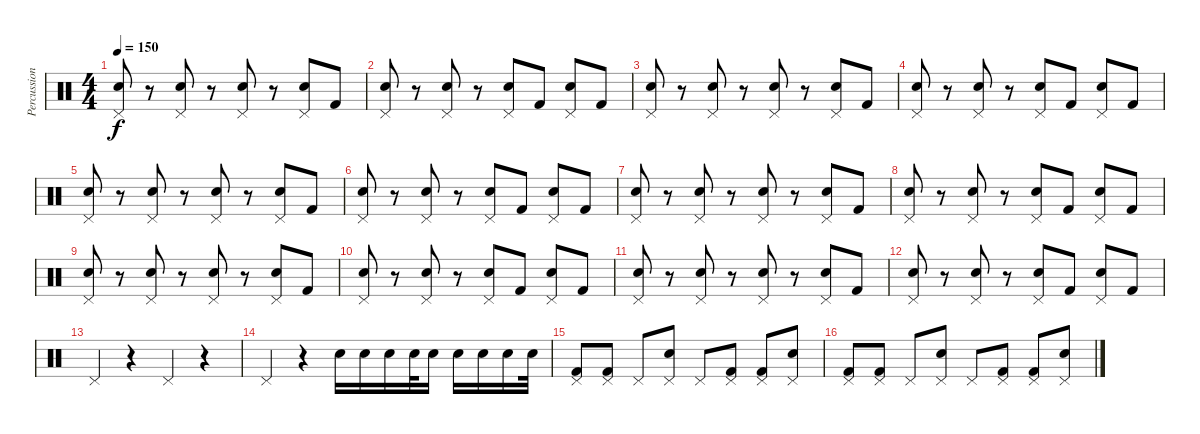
\track ("Percussion" "Percussion") {instrument percussion}
\staff {score}
\articulation defaults
\ts (4 4)
\tempo 150
\clef neutral
\ks c
("Pedal Hi-Hat (hit)" "Electric Snare (hit)").8{dy f} r.8 ("Pedal Hi-Hat (hit)" "Electric Snare (hit)").8 r.8 ("Pedal Hi-Hat (hit)" "Electric Snare (hit)").8 r.8 ("Pedal Hi-Hat (hit)" "Electric Snare (hit)").8 "Kick (hit) 2".8 |
("Pedal Hi-Hat (hit)" "Electric Snare (hit)").8 r.8 ("Pedal Hi-Hat (hit)" "Electric Snare (hit)").8 r.8 ("Pedal Hi-Hat (hit)" "Electric Snare (hit)").8 "Kick (hit) 2".8 ("Pedal Hi-Hat (hit)" "Electric Snare (hit)").8 "Kick (hit) 2".8 |
("Pedal Hi-Hat (hit)" "Electric Snare (hit)").8 r.8 ("Pedal Hi-Hat (hit)" "Electric Snare (hit)").8 r.8 ("Pedal Hi-Hat (hit)" "Electric Snare (hit)").8 r.8 ("Pedal Hi-Hat (hit)" "Electric Snare (hit)").8 "Kick (hit) 2".8 |
("Pedal Hi-Hat (hit)" "Electric Snare (hit)").8 r.8 ("Pedal Hi-Hat (hit)" "Electric Snare (hit)").8 r.8 ("Pedal Hi-Hat (hit)" "Electric Snare (hit)").8 "Kick (hit) 2".8 ("Pedal Hi-Hat (hit)" "Electric Snare (hit)").8 "Kick (hit) 2".8 |
("Pedal Hi-Hat (hit)" "Electric Snare (hit)").8 r.8 ("Pedal Hi-Hat (hit)" "Electric Snare (hit)").8 r.8 ("Pedal Hi-Hat (hit)" "Electric Snare (hit)").8 r.8 ("Pedal Hi-Hat (hit)" "Electric Snare (hit)").8 "Kick (hit) 2".8 |
("Pedal Hi-Hat (hit)" "Electric Snare (hit)").8 r.8 ("Pedal Hi-Hat (hit)" "Electric Snare (hit)").8 r.8 ("Pedal Hi-Hat (hit)" "Electric Snare (hit)").8 "Kick (hit) 2".8 ("Pedal Hi-Hat (hit)" "Electric Snare (hit)").8 "Kick (hit) 2".8 |
("Pedal Hi-Hat (hit)" "Electric Snare (hit)").8 r.8 ("Pedal Hi-Hat (hit)" "Electric Snare (hit)").8 r.8 ("Pedal Hi-Hat (hit)" "Electric Snare (hit)").8 r.8 ("Pedal Hi-Hat (hit)" "Electric Snare (hit)").8 "Kick (hit) 2".8 |
("Pedal Hi-Hat (hit)" "Electric Snare (hit)").8 r.8 ("Pedal Hi-Hat (hit)" "Electric Snare (hit)").8 r.8 ("Pedal Hi-Hat (hit)" "Electric Snare (hit)").8 "Kick (hit) 2".8 ("Pedal Hi-Hat (hit)" "Electric Snare (hit)").8 "Kick (hit) 2".8 |
("Pedal Hi-Hat (hit)" "Electric Snare (hit)").8 r.8 ("Pedal Hi-Hat (hit)" "Electric Snare (hit)").8 r.8 ("Pedal Hi-Hat (hit)" "Electric Snare (hit)").8 r.8 ("Pedal Hi-Hat (hit)" "Electric Snare (hit)").8 "Kick (hit) 2".8 |
("Pedal Hi-Hat (hit)" "Electric Snare (hit)").8 r.8 ("Pedal Hi-Hat (hit)" "Electric Snare (hit)").8 r.8 ("Pedal Hi-Hat (hit)" "Electric Snare (hit)").8 "Kick (hit) 2".8 ("Pedal Hi-Hat (hit)" "Electric Snare (hit)").8 "Kick (hit) 2".8 |
("Pedal Hi-Hat (hit)" "Electric Snare (hit)").8 r.8 ("Pedal Hi-Hat (hit)" "Electric Snare (hit)").8 r.8 ("Pedal Hi-Hat (hit)" "Electric Snare (hit)").8 r.8 ("Pedal Hi-Hat (hit)" "Electric Snare (hit)").8 "Kick (hit) 2".8 |
("Pedal Hi-Hat (hit)" "Electric Snare (hit)").8 r.8 ("Pedal Hi-Hat (hit)" "Electric Snare (hit)").8 r.8 ("Pedal Hi-Hat (hit)" "Electric Snare (hit)").8 "Kick (hit) 2".8 ("Pedal Hi-Hat (hit)" "Electric Snare (hit)").8 "Kick (hit) 2".8 |
"Pedal Hi-Hat (hit)".4 r.4 "Pedal Hi-Hat (hit)".4 r.4 |
"Pedal Hi-Hat (hit)".4 r.4 "Electric Snare (hit)".16 "Electric Snare (hit)".16 "Electric Snare (hit)".16 "Electric Snare (hit)".32 "Electric Snare (hit)".16 "Electric Snare (hit)".16 "Electric Snare (hit)".16 "Electric Snare (hit)".16 "Electric Snare (hit)".32 |
("Pedal Hi-Hat (hit)" "Kick (hit) 2").8 ("Pedal Hi-Hat (hit)" "Kick (hit) 2").8 "Pedal Hi-Hat (hit)".8 ("Pedal Hi-Hat (hit)" "Electric Snare (hit)").8 "Pedal Hi-Hat (hit)".8 ("Pedal Hi-Hat (hit)" "Kick (hit) 2").8 ("Pedal Hi-Hat (hit)" "Kick (hit) 2").8 ("Pedal Hi-Hat (hit)" "Electric Snare (hit)").8 |
("Pedal Hi-Hat (hit)" "Kick (hit) 2").8 ("Pedal Hi-Hat (hit)" "Kick (hit) 2").8 "Pedal Hi-Hat (hit)".8 ("Pedal Hi-Hat (hit)" "Electric Snare (hit)").8 "Pedal Hi-Hat (hit)".8 ("Pedal Hi-Hat (hit)" "Kick (hit) 2").8 ("Pedal Hi-Hat (hit)" "Kick (hit) 2").8 ("Pedal Hi-Hat (hit)" "Electric Snare (hit)").8
